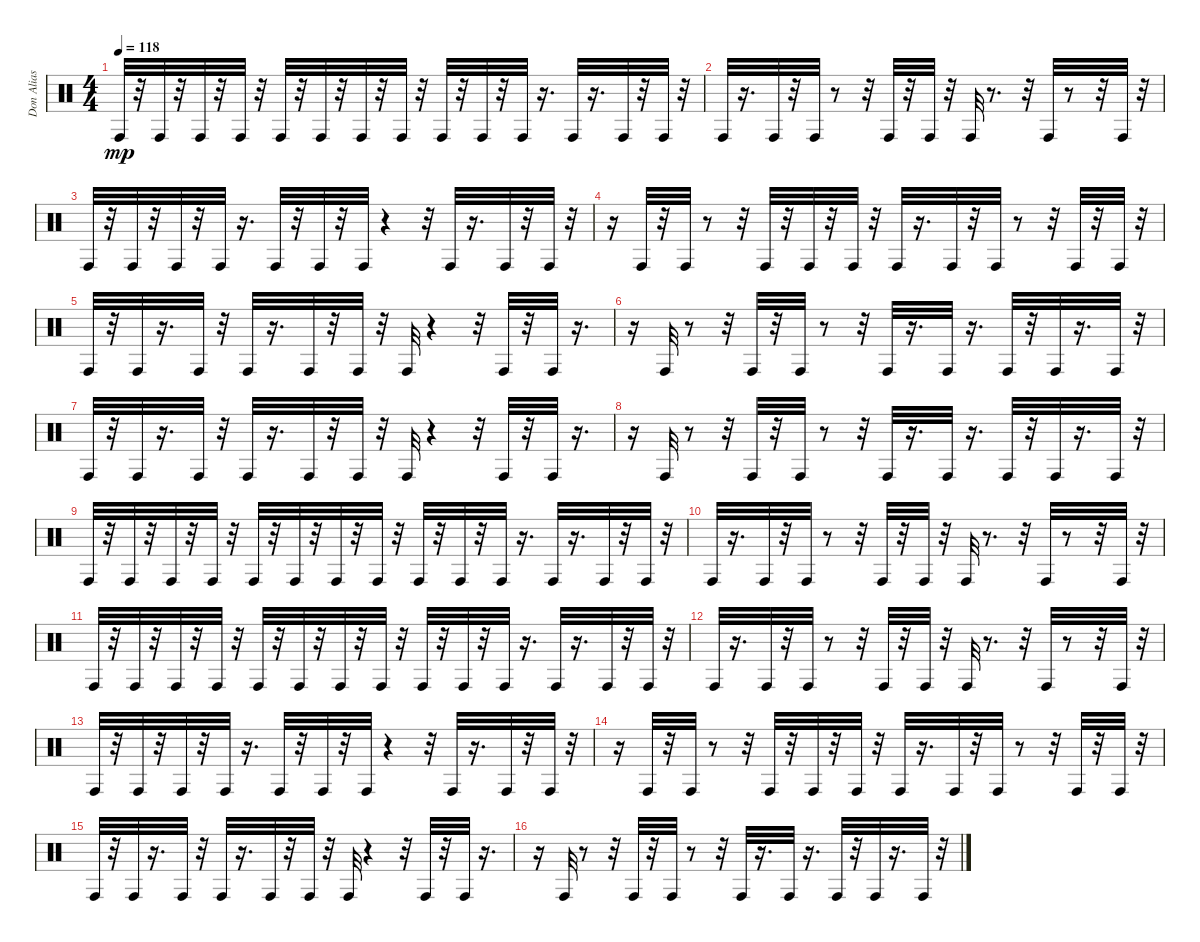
\track ("Don Alias" "Don Alias") {instrument percussion}
\staff {score}
\articulation defaults
\ts (4 4)
\tempo 118
\clef neutral
\ks c "Conga high (hit)".32{dy mp}
r.32 "Conga high (hit)".32 r.32 "Conga high (hit)".32 r.32 "Conga high (hit)".32 r.32 "Conga high (hit)".32 r.32 "Conga high (hit)".32 r.32 "Conga high (hit)".32 r.32 "Conga high (hit)".32 r.32 "Conga high (hit)".32 r.32 "Conga high (hit)".32 r.32 "Conga high (hit)".32 r.16{d} "Conga high (hit)".32 r.16{d} "Conga high (hit)".32 r.32 "Conga high (hit)".32 r.32 |
"Conga high (hit)".32 r.16{d} "Conga high (hit)".32 r.32 "Conga high (hit)".32 r.8 r.32 "Conga high (hit)".32 r.32 "Conga high (hit)".32 r.32 "Conga high (hit)".32 r.8{d} r.32 "Conga high (hit)".32 r.8 r.32 "Conga high (hit)".32 r.32 |
"Conga high (hit)".32 r.32 "Conga high (hit)".32 r.32 "Conga high (hit)".32 r.32 "Conga high (hit)".32 r.16{d} "Conga high (hit)".32 r.32 "Conga high (hit)".32 r.32 "Conga high (hit)".32 r.4 r.32 "Conga high (hit)".32 r.16{d} "Conga high (hit)".32 r.32 "Conga high (hit)".32 r.32 |
r.16 "Conga high (hit)".32 r.32 "Conga high (hit)".32 r.8 r.32 "Conga high (hit)".32 r.32 "Conga high (hit)".32 r.32 "Conga high (hit)".32 r.32 "Conga high (hit)".32 r.16{d} "Conga high (hit)".32 r.32 "Conga high (hit)".32 r.8 r.32 "Conga high (hit)".32 r.32 "Conga high (hit)".32 r.32 |
"Conga high (hit)".32 r.32 "Conga high (hit)".32 r.16{d} "Conga high (hit)".32 r.32 "Conga high (hit)".32 r.16{d} "Conga high (hit)".32 r.32 "Conga high (hit)".32 r.32 "Conga high (hit)".32 r.4 r.32 "Conga high (hit)".32 r.32 "Conga high (hit)".32 r.16{d} |
r.16 "Conga high (hit)".32 r.8 r.32 "Conga high (hit)".32 r.32 "Conga high (hit)".32 r.8 r.32 "Conga high (hit)".32 r.16{d} "Conga high (hit)".32 r.16{d} "Conga high (hit)".32 r.32 "Conga high (hit)".32 r.16{d} "Conga high (hit)".32 r.32 |
"Conga high (hit)".32 r.32 "Conga high (hit)".32 r.16{d} "Conga high (hit)".32 r.32 "Conga high (hit)".32 r.16{d} "Conga high (hit)".32 r.32 "Conga high (hit)".32 r.32 "Conga high (hit)".32 r.4 r.32 "Conga high (hit)".32 r.32 "Conga high (hit)".32 r.16{d} |
r.16 "Conga high (hit)".32 r.8 r.32 "Conga high (hit)".32 r.32 "Conga high (hit)".32 r.8 r.32 "Conga high (hit)".32 r.16{d} "Conga high (hit)".32 r.16{d} "Conga high (hit)".32 r.32 "Conga high (hit)".32 r.16{d} "Conga high (hit)".32 r.32 |
"Conga high (hit)".32 r.32 "Conga high (hit)".32 r.32 "Conga high (hit)".32 r.32 "Conga high (hit)".32 r.32 "Conga high (hit)".32 r.32 "Conga high (hit)".32 r.32 "Conga high (hit)".32 r.32 "Conga high (hit)".32 r.32 "Conga high (hit)".32 r.32 "Conga high (hit)".32 r.32 "Conga high (hit)".32 r.16{d} "Conga high (hit)".32 r.16{d} "Conga high (hit)".32 r.32 "Conga high (hit)".32 r.32 |
"Conga high (hit)".32 r.16{d} "Conga high (hit)".32 r.32 "Conga high (hit)".32 r.8 r.32 "Conga high (hit)".32 r.32 "Conga high (hit)".32 r.32 "Conga high (hit)".32 r.8{d} r.32 "Conga high (hit)".32 r.8 r.32 "Conga high (hit)".32 r.32 |
"Conga high (hit)".32 r.32 "Conga high (hit)".32 r.32 "Conga high (hit)".32 r.32 "Conga high (hit)".32 r.32 "Conga high (hit)".32 r.32 "Conga high (hit)".32 r.32 "Conga high (hit)".32 r.32 "Conga high (hit)".32 r.32 "Conga high (hit)".32 r.32 "Conga high (hit)".32 r.32 "Conga high (hit)".32 r.16{d} "Conga high (hit)".32 r.16{d} "Conga high (hit)".32 r.32 "Conga high (hit)".32 r.32 |
"Conga high (hit)".32 r.16{d} "Conga high (hit)".32 r.32 "Conga high (hit)".32 r.8 r.32 "Conga high (hit)".32 r.32 "Conga high (hit)".32 r.32 "Conga high (hit)".32 r.8{d} r.32 "Conga high (hit)".32 r.8 r.32 "Conga high (hit)".32 r.32 |
"Conga high (hit)".32 r.32 "Conga high (hit)".32 r.32 "Conga high (hit)".32 r.32 "Conga high (hit)".32 r.16{d} "Conga high (hit)".32 r.32 "Conga high (hit)".32 r.32 "Conga high (hit)".32 r.4 r.32 "Conga high (hit)".32 r.16{d} "Conga high (hit)".32 r.32 "Conga high (hit)".32 r.32 |
r.16 "Conga high (hit)".32 r.32 "Conga high (hit)".32 r.8 r.32 "Conga high (hit)".32 r.32 "Conga high (hit)".32 r.32 "Conga high (hit)".32 r.32 "Conga high (hit)".32 r.16{d} "Conga high (hit)".32 r.32 "Conga high (hit)".32 r.8 r.32 "Conga high (hit)".32 r.32 "Conga high (hit)".32 r.32 |
"Conga high (hit)".32 r.32 "Conga high (hit)".32 r.16{d} "Conga high (hit)".32 r.32 "Conga high (hit)".32 r.16{d} "Conga high (hit)".32 r.32 "Conga high (hit)".32 r.32 "Conga high (hit)".32 r.4 r.32 "Conga high (hit)".32 r.32 "Conga high (hit)".32 r.16{d} |
r.16 "Conga high (hit)".32 r.8 r.32 "Conga high (hit)".32 r.32 "Conga high (hit)".32 r.8 r.32 "Conga high (hit)".32 r.16{d} "Conga high (hit)".32 r.16{d} "Conga high (hit)".32 r.32 "Conga high (hit)".32 r.16{d} "Conga high (hit)".32 r.32
